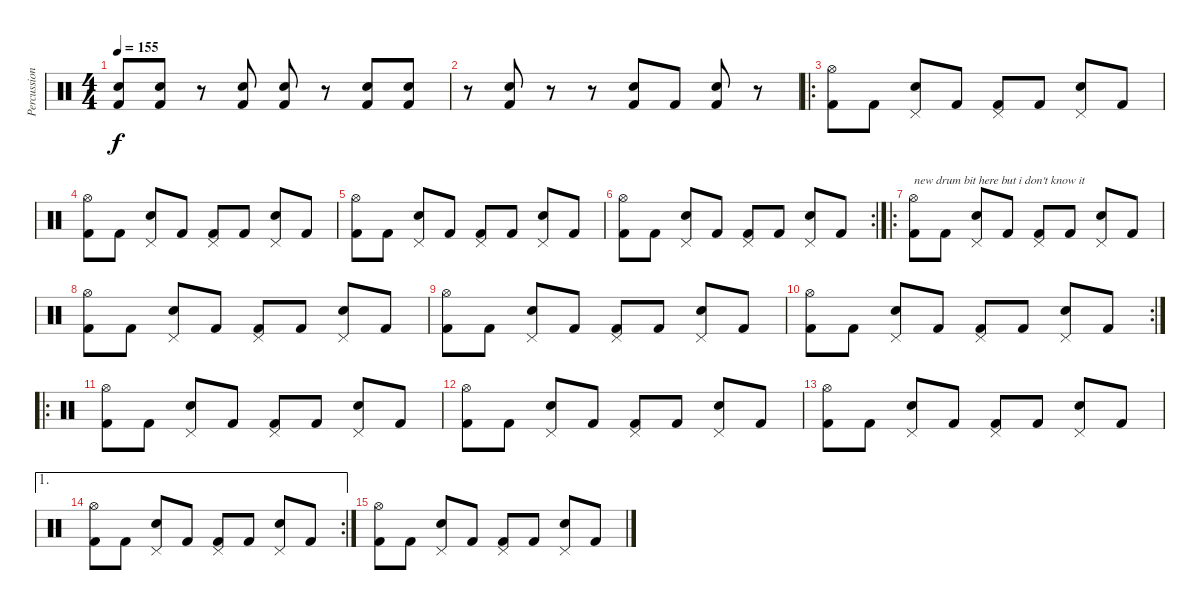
\track ("Percussion" "Percussion") {instrument percussion}
\staff {score}
\articulation defaults
\ts (4 4)
\tempo 155
\clef neutral
\ks c
("Electric Snare (hit)" "Kick (hit) 2").8{dy f} ("Electric Snare (hit)" "Kick (hit) 2").8 r.8 ("Electric Snare (hit)" "Kick (hit) 2").8 ("Electric Snare (hit)" "Kick (hit) 2").8 r.8 ("Electric Snare (hit)" "Kick (hit) 2").8 ("Electric Snare (hit)" "Kick (hit) 2").8 |
r.8 ("Electric Snare (hit)" "Kick (hit) 2").8 r.8 r.8 ("Electric Snare (hit)" "Kick (hit) 2").8 "Kick (hit) 2".8 ("Electric Snare (hit)" "Kick (hit) 2").8 r.8 |
\ro
("Hi-Hat (open)" "Kick (hit) 2").8 "Kick (hit) 2".8 ("Pedal Hi-Hat (hit)" "Electric Snare (hit)").8 "Kick (hit) 2".8 ("Pedal Hi-Hat (hit)" "Kick (hit) 2").8 "Kick (hit) 2".8 ("Pedal Hi-Hat (hit)" "Electric Snare (hit)").8 "Kick (hit) 2".8 |
("Hi-Hat (open)" "Kick (hit) 2").8 "Kick (hit) 2".8 ("Pedal Hi-Hat (hit)" "Electric Snare (hit)").8 "Kick (hit) 2".8 ("Pedal Hi-Hat (hit)" "Kick (hit) 2").8 "Kick (hit) 2".8 ("Pedal Hi-Hat (hit)" "Electric Snare (hit)").8 "Kick (hit) 2".8 |
("Hi-Hat (open)" "Kick (hit) 2").8 "Kick (hit) 2".8 ("Pedal Hi-Hat (hit)" "Electric Snare (hit)").8 "Kick (hit) 2".8 ("Pedal Hi-Hat (hit)" "Kick (hit) 2").8 "Kick (hit) 2".8 ("Pedal Hi-Hat (hit)" "Electric Snare (hit)").8 "Kick (hit) 2".8 |
\rc 2
("Hi-Hat (open)" "Kick (hit) 2").8 "Kick (hit) 2".8 ("Pedal Hi-Hat (hit)" "Electric Snare (hit)").8 "Kick (hit) 2".8 ("Pedal Hi-Hat (hit)" "Kick (hit) 2").8 "Kick (hit) 2".8 ("Pedal Hi-Hat (hit)" "Electric Snare (hit)").8 "Kick (hit) 2".8 |
\ro
("Hi-Hat (open)" "Kick (hit) 2").8{txt "new drum bit here but i don't know it"} "Kick (hit) 2".8 ("Pedal Hi-Hat (hit)" "Electric Snare (hit)").8 "Kick (hit) 2".8 ("Pedal Hi-Hat (hit)" "Kick (hit) 2").8 "Kick (hit) 2".8 ("Pedal Hi-Hat (hit)" "Electric Snare (hit)").8 "Kick (hit) 2".8 |
("Hi-Hat (open)" "Kick (hit) 2").8 "Kick (hit) 2".8 ("Pedal Hi-Hat (hit)" "Electric Snare (hit)").8 "Kick (hit) 2".8 ("Pedal Hi-Hat (hit)" "Kick (hit) 2").8 "Kick (hit) 2".8 ("Pedal Hi-Hat (hit)" "Electric Snare (hit)").8 "Kick (hit) 2".8 |
("Hi-Hat (open)" "Kick (hit) 2").8 "Kick (hit) 2".8 ("Pedal Hi-Hat (hit)" "Electric Snare (hit)").8 "Kick (hit) 2".8 ("Pedal Hi-Hat (hit)" "Kick (hit) 2").8 "Kick (hit) 2".8 ("Pedal Hi-Hat (hit)" "Electric Snare (hit)").8 "Kick (hit) 2".8 |
\rc 2
("Hi-Hat (open)" "Kick (hit) 2").8 "Kick (hit) 2".8 ("Pedal Hi-Hat (hit)" "Electric Snare (hit)").8 "Kick (hit) 2".8 ("Pedal Hi-Hat (hit)" "Kick (hit) 2").8 "Kick (hit) 2".8 ("Pedal Hi-Hat (hit)" "Electric Snare (hit)").8 "Kick (hit) 2".8 |
\ro
("Hi-Hat (open)" "Kick (hit) 2").8 "Kick (hit) 2".8 ("Pedal Hi-Hat (hit)" "Electric Snare (hit)").8 "Kick (hit) 2".8 ("Pedal Hi-Hat (hit)" "Kick (hit) 2").8 "Kick (hit) 2".8 ("Pedal Hi-Hat (hit)" "Electric Snare (hit)").8 "Kick (hit) 2".8 |
("Hi-Hat (open)" "Kick (hit) 2").8 "Kick (hit) 2".8 ("Pedal Hi-Hat (hit)" "Electric Snare (hit)").8 "Kick (hit) 2".8 ("Pedal Hi-Hat (hit)" "Kick (hit) 2").8 "Kick (hit) 2".8 ("Pedal Hi-Hat (hit)" "Electric Snare (hit)").8 "Kick (hit) 2".8 |
("Hi-Hat (open)" "Kick (hit) 2").8 "Kick (hit) 2".8 ("Pedal Hi-Hat (hit)" "Electric Snare (hit)").8 "Kick (hit) 2".8 ("Pedal Hi-Hat (hit)" "Kick (hit) 2").8 "Kick (hit) 2".8 ("Pedal Hi-Hat (hit)" "Electric Snare (hit)").8 "Kick (hit) 2".8 |
\ae 1
\rc 2
("Hi-Hat (open)" "Kick (hit) 2").8 "Kick (hit) 2".8 ("Pedal Hi-Hat (hit)" "Electric Snare (hit)").8 "Kick (hit) 2".8 ("Pedal Hi-Hat (hit)" "Kick (hit) 2").8 "Kick (hit) 2".8 ("Pedal Hi-Hat (hit)" "Electric Snare (hit)").8 "Kick (hit) 2".8 |
("Hi-Hat (open)" "Kick (hit) 2").8 "Kick (hit) 2".8 ("Pedal Hi-Hat (hit)" "Electric Snare (hit)").8 "Kick (hit) 2".8 ("Pedal Hi-Hat (hit)" "Kick (hit) 2").8 "Kick (hit) 2".8 ("Pedal Hi-Hat (hit)" "Electric Snare (hit)").8 "Kick (hit) 2".8
